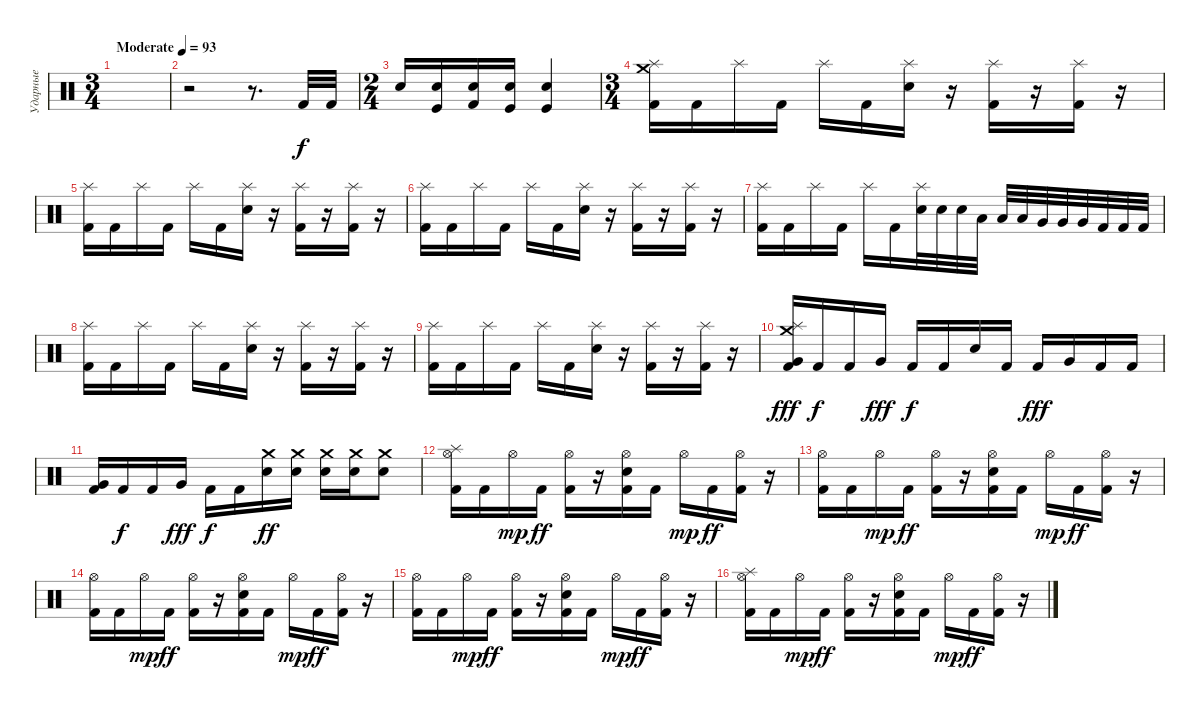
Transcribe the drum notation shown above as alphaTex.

\track ("Ударные" "Ударные") {instrument percussion}
\staff {score}
\articulation defaults
\ts (3 4)
\tempo (93 "Moderate")
\clef neutral
\ks c
|
r.2 r.8{d} "Kick (hit) 2".32 "Kick (hit) 2".32 |
\ts (2 4)
"Electric Snare (hit)".16 ("Electric Snare (hit)" "Kick (hit)").16 ("Electric Snare (hit)" "Kick (hit) 2").16 ("Electric Snare (hit)" "Kick (hit)").16 ("Electric Snare (hit)" "Kick (hit)").4 |
\ts (3 4)
("Splash (hit)" "Crash medium (hit)" "Kick (hit) 2").16 "Kick (hit) 2".16 "Splash (hit)".16 "Kick (hit) 2".16 "Splash (hit)".16 "Kick (hit) 2".16 ("Splash (hit)" "Electric Snare (hit)").16 r.16 ("Splash (hit)" "Kick (hit) 2").16 r.16 ("Splash (hit)" "Kick (hit) 2").16 r.16 |
("Splash (hit)" "Kick (hit) 2").16 "Kick (hit) 2".16 "Splash (hit)".16 "Kick (hit) 2".16 "Splash (hit)".16 "Kick (hit) 2".16 ("Splash (hit)" "Electric Snare (hit)").16 r.16 ("Splash (hit)" "Kick (hit) 2").16 r.16 ("Splash (hit)" "Kick (hit) 2").16 r.16 |
("Splash (hit)" "Kick (hit) 2").16 "Kick (hit) 2".16 "Splash (hit)".16 "Kick (hit) 2".16 "Splash (hit)".16 "Kick (hit) 2".16 ("Splash (hit)" "Electric Snare (hit)").16 r.16 ("Splash (hit)" "Kick (hit) 2").16 r.16 ("Splash (hit)" "Kick (hit) 2").16 r.16 |
("Splash (hit)" "Kick (hit) 2").16 "Kick (hit) 2".16 "Splash (hit)".16 "Kick (hit) 2".16 "Splash (hit)".16 "Kick (hit) 2".16 ("Splash (hit)" "Electric Snare (hit)").32 "Electric Snare (hit)".32 "Electric Snare (hit)".32 "Low Tom (hit)".32 "Low Tom (hit)".32 "Low Tom (hit)".32 "Very Low Tom (hit)".32 "Very Low Tom (hit)".32 "Very Low Tom (hit)".32 "Kick (hit) 2".32 "Kick (hit) 2".32 "Kick (hit) 2".32 |
("Splash (hit)" "Kick (hit) 2").16 "Kick (hit) 2".16 "Splash (hit)".16 "Kick (hit) 2".16 "Splash (hit)".16 "Kick (hit) 2".16 ("Splash (hit)" "Electric Snare (hit)").16 r.16 ("Splash (hit)" "Kick (hit) 2").16 r.16 ("Splash (hit)" "Kick (hit) 2").16 r.16 |
("Splash (hit)" "Kick (hit) 2").16 "Kick (hit) 2".16 "Splash (hit)".16 "Kick (hit) 2".16 "Splash (hit)".16 "Kick (hit) 2".16 ("Splash (hit)" "Electric Snare (hit)").16 r.16 ("Splash (hit)" "Kick (hit) 2").16 r.16 ("Splash (hit)" "Kick (hit) 2").16 r.16 |
("Splash (hit)" "Crash medium (hit)" "Very Low Tom (hit)" "Kick (hit) 2").16{dy fff} "Kick (hit) 2".16{dy f} "Kick (hit) 2".16 "Very Low Tom (hit)".16{dy fff} "Kick (hit) 2".16{dy f} "Kick (hit) 2".16 "Electric Snare (hit)".16 "Kick (hit) 2".16 "Kick (hit) 2".16{dy fff} "Very Low Tom (hit)".16 "Kick (hit) 2".16 "Kick (hit) 2".16 |
("Very Low Tom (hit)" "Kick (hit) 2").16 "Kick (hit) 2".16{dy f} "Kick (hit) 2".16 "Very Low Tom (hit)".16{dy fff} "Kick (hit) 2".16{dy f} "Kick (hit) 2".16 ("Crash medium (hit)" "Electric Snare (hit)").16{dy ff} ("Crash medium (hit)" "Electric Snare (hit)").16 ("Crash medium (hit)" "Electric Snare (hit)").16 ("Crash medium (hit)" "Electric Snare (hit)").16 ("Crash medium (hit)" "Electric Snare (hit)").8 |
("Hi-Hat (open)" "Splash (hit)" "Kick (hit) 2").16 "Kick (hit) 2".16 "Hi-Hat (open)".16{dy mp} "Kick (hit) 2".16{dy ff} ("Hi-Hat (open)" "Kick (hit) 2").16 r.16 ("Hi-Hat (open)" "Electric Snare (hit)" "Kick (hit) 2").16 "Kick (hit) 2".16 "Hi-Hat (open)".16{dy mp} "Kick (hit) 2".16{dy ff} ("Hi-Hat (open)" "Kick (hit) 2").16 r.16 |
("Hi-Hat (open)" "Kick (hit) 2").16 "Kick (hit) 2".16 "Hi-Hat (open)".16{dy mp} "Kick (hit) 2".16{dy ff} ("Hi-Hat (open)" "Kick (hit) 2").16 r.16 ("Hi-Hat (open)" "Electric Snare (hit)" "Kick (hit) 2").16 "Kick (hit) 2".16 "Hi-Hat (open)".16{dy mp} "Kick (hit) 2".16{dy ff} ("Hi-Hat (open)" "Kick (hit) 2").16 r.16 |
("Hi-Hat (open)" "Kick (hit) 2").16 "Kick (hit) 2".16 "Hi-Hat (open)".16{dy mp} "Kick (hit) 2".16{dy ff} ("Hi-Hat (open)" "Kick (hit) 2").16 r.16 ("Hi-Hat (open)" "Electric Snare (hit)" "Kick (hit) 2").16 "Kick (hit) 2".16 "Hi-Hat (open)".16{dy mp} "Kick (hit) 2".16{dy ff} ("Hi-Hat (open)" "Kick (hit) 2").16 r.16 |
("Hi-Hat (open)" "Kick (hit) 2").16 "Kick (hit) 2".16 "Hi-Hat (open)".16{dy mp} "Kick (hit) 2".16{dy ff} ("Hi-Hat (open)" "Kick (hit) 2").16 r.16 ("Hi-Hat (open)" "Electric Snare (hit)" "Kick (hit) 2").16 "Kick (hit) 2".16 "Hi-Hat (open)".16{dy mp} "Kick (hit) 2".16{dy ff} ("Hi-Hat (open)" "Kick (hit) 2").16 r.16 |
("Hi-Hat (open)" "Splash (hit)" "Kick (hit) 2").16 "Kick (hit) 2".16 "Hi-Hat (open)".16{dy mp} "Kick (hit) 2".16{dy ff} ("Hi-Hat (open)" "Kick (hit) 2").16 r.16 ("Hi-Hat (open)" "Electric Snare (hit)" "Kick (hit) 2").16 "Kick (hit) 2".16 "Hi-Hat (open)".16{dy mp} "Kick (hit) 2".16{dy ff} ("Hi-Hat (open)" "Kick (hit) 2").16 r.16
